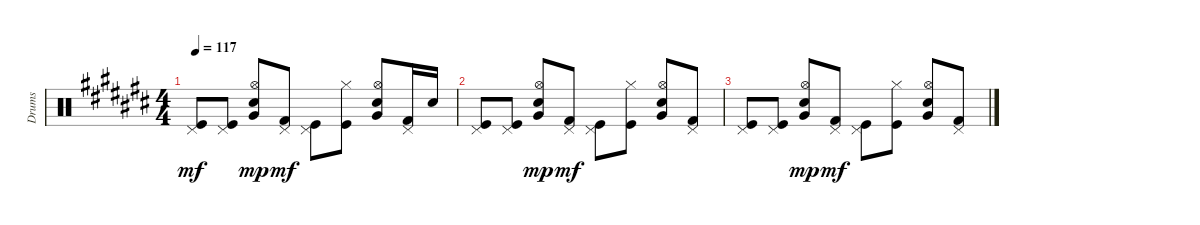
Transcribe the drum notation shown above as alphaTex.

\track ("Drums" "Drums") {instrument percussion}
\staff {score}
\articulation defaults
\ts (4 4)
\tempo 117
\clef neutral
\ks a#minor
("Pedal Hi-Hat (hit)" "Kick (hit)").8{dy mf volume 4} ("Kick (hit)" "Pedal Hi-Hat (hit)").8{volume 4} ("Snare (hit) 2" "Hi-Hat (open)" "Very Low Tom (hit)").8{dy mp volume 4} ("Pedal Hi-Hat (hit)" "Kick (hit) 2").8{dy mf volume 4} ("Pedal Hi-Hat (hit)" "Kick (hit)").8{volume 4} ("Kick (hit)" "Hi-Hat (closed)").8{volume 3} ("Very Low Tom (hit)" "Snare (hit) 2" "Hi-Hat (open)").8{volume 3} ("Pedal Hi-Hat (hit)" "Kick (hit) 2").16{volume 3} "Snare (hit) 2".16{volume 3} |
("Kick (hit)" "Pedal Hi-Hat (hit)").8 ("Kick (hit)" "Pedal Hi-Hat (hit)").8{volume 3} ("Snare (hit) 2" "Hi-Hat (open)" "Very Low Tom (hit)").8{dy mp volume 2} ("Pedal Hi-Hat (hit)" "Kick (hit) 2").8{dy mf volume 2} ("Pedal Hi-Hat (hit)" "Kick (hit)").8{volume 2} ("Kick (hit)" "Hi-Hat (closed)").8{volume 2} ("Very Low Tom (hit)" "Snare (hit) 2" "Hi-Hat (open)").8{volume 2} ("Pedal Hi-Hat (hit)" "Kick (hit) 2").8{volume 2} |
("Pedal Hi-Hat (hit)" "Kick (hit)").8{volume 2} ("Kick (hit)" "Pedal Hi-Hat (hit)").8{volume 1} ("Snare (hit) 2" "Hi-Hat (open)" "Very Low Tom (hit)").8{dy mp volume 1} ("Pedal Hi-Hat (hit)" "Kick (hit) 2").8{dy mf volume 1} ("Pedal Hi-Hat (hit)" "Kick (hit)").8{volume 1} ("Kick (hit)" "Hi-Hat (closed)").8{volume 1} ("Very Low Tom (hit)" "Snare (hit) 2" "Hi-Hat (open)").8{volume 0} ("Pedal Hi-Hat (hit)" "Kick (hit) 2").8{volume 0}
